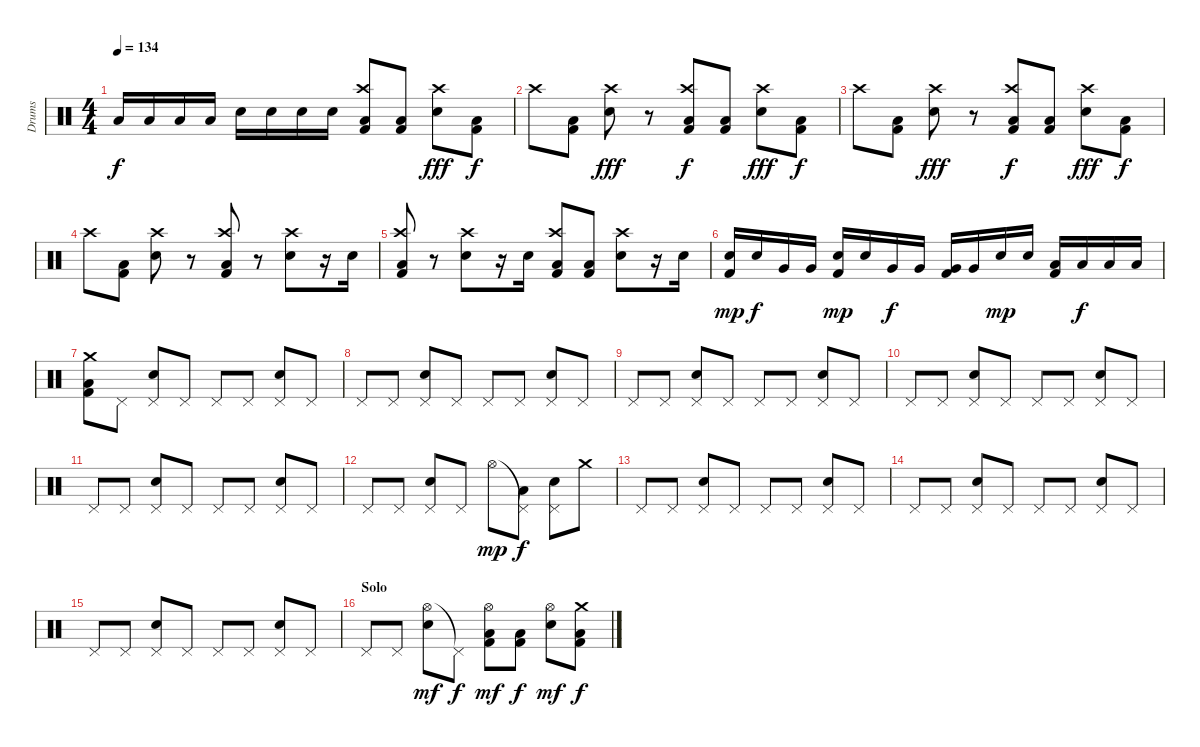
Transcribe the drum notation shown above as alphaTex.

\track ("Drums" "Drums") {instrument percussion}
\staff {score}
\articulation defaults
\ts (4 4)
\tempo 134
\clef neutral
\ks c "Low Floor Tom (hit)".16{dy f} "Low Floor Tom (hit)".16 "Low Floor Tom (hit)".16 "Low Floor Tom (hit)".16 "Snare (hit) 2".16 "Snare (hit) 2".16 "Snare (hit) 2".16 "Snare (hit) 2".16
("Crash high (hit)" "Kick (hit) 2" "Low Floor Tom (hit)").8 ("Kick (hit) 2" "Low Floor Tom (hit)").8 ("Crash high (hit)" "Snare (hit) 2").8{dy fff} ("Kick (hit) 2" "Low Floor Tom (hit)").8{dy f} |
"Crash high (hit)".8 ("Kick (hit) 2" "Low Floor Tom (hit)").8 ("Crash high (hit)" "Snare (hit) 2").8{dy fff} r.8 ("Crash high (hit)" "Kick (hit) 2" "Low Floor Tom (hit)").8{dy f} ("Kick (hit) 2" "Low Floor Tom (hit)").8 ("Crash high (hit)" "Snare (hit) 2").8{dy fff} ("Kick (hit) 2" "Low Floor Tom (hit)").8{dy f} |
"Crash high (hit)".8 ("Kick (hit) 2" "Low Floor Tom (hit)").8 ("Crash high (hit)" "Snare (hit) 2").8{dy fff} r.8 ("Crash high (hit)" "Kick (hit) 2" "Low Floor Tom (hit)").8{dy f} ("Kick (hit) 2" "Low Floor Tom (hit)").8 ("Crash high (hit)" "Snare (hit) 2").8{dy fff} ("Kick (hit) 2" "Low Floor Tom (hit)").8{dy f} |
"Crash high (hit)".8 ("Kick (hit) 2" "Low Floor Tom (hit)").8 ("Crash high (hit)" "Snare (hit) 2").8 r.8 ("Crash high (hit)" "Kick (hit) 2" "Low Floor Tom (hit)").8 r.8 ("Crash high (hit)" "Snare (hit) 2").8 r.16 "Snare (hit) 2".16 |
("Crash high (hit)" "Kick (hit) 2" "Low Floor Tom (hit)").8 r.8 ("Crash high (hit)" "Snare (hit) 2").8 r.16 "Snare (hit) 2".16 ("Crash high (hit)" "Kick (hit) 2" "Low Floor Tom (hit)").8 ("Kick (hit) 2" "Low Floor Tom (hit)").8 ("Crash high (hit)" "Snare (hit) 2").8 r.16 "Snare (hit) 2".16 |
("Snare (hit) 2" "Kick (hit) 2").16{dy mp} "Snare (hit) 2".16{dy f} "Very Low Tom (hit)".16 "Very Low Tom (hit)".16 ("Snare (hit) 2" "Kick (hit) 2").16{dy mp} "Snare (hit) 2".16 "Very Low Tom (hit)".16{dy f} "Very Low Tom (hit)".16 ("Very Low Tom (hit)" "Kick (hit) 2").16 "Very Low Tom (hit)".16 "Snare (hit) 2".16{dy mp} "Snare (hit) 2".16 ("Low Floor Tom (hit)" "Kick (hit) 2").16 "Low Floor Tom (hit)".16{dy f} "Low Floor Tom (hit)".16 "Low Floor Tom (hit)".16 |
("Crash medium (hit)" "Kick (hit) 2" "Low Floor Tom (hit)").8 "Pedal Hi-Hat (hit)".8 ("Pedal Hi-Hat (hit)" "Snare (hit) 2").8 "Pedal Hi-Hat (hit)".8 "Pedal Hi-Hat (hit)".8 "Pedal Hi-Hat (hit)".8 ("Pedal Hi-Hat (hit)" "Snare (hit) 2").8 "Pedal Hi-Hat (hit)".8 |
"Pedal Hi-Hat (hit)".8 "Pedal Hi-Hat (hit)".8 ("Pedal Hi-Hat (hit)" "Snare (hit) 2").8 "Pedal Hi-Hat (hit)".8 "Pedal Hi-Hat (hit)".8 "Pedal Hi-Hat (hit)".8 ("Pedal Hi-Hat (hit)" "Snare (hit) 2").8 "Pedal Hi-Hat (hit)".8 |
"Pedal Hi-Hat (hit)".8 "Pedal Hi-Hat (hit)".8 ("Pedal Hi-Hat (hit)" "Snare (hit) 2").8 "Pedal Hi-Hat (hit)".8 "Pedal Hi-Hat (hit)".8 "Pedal Hi-Hat (hit)".8 ("Pedal Hi-Hat (hit)" "Snare (hit) 2").8 "Pedal Hi-Hat (hit)".8 |
"Pedal Hi-Hat (hit)".8 "Pedal Hi-Hat (hit)".8 ("Pedal Hi-Hat (hit)" "Snare (hit) 2").8 "Pedal Hi-Hat (hit)".8 "Pedal Hi-Hat (hit)".8 "Pedal Hi-Hat (hit)".8 ("Pedal Hi-Hat (hit)" "Snare (hit) 2").8 "Pedal Hi-Hat (hit)".8 |
"Pedal Hi-Hat (hit)".8 "Pedal Hi-Hat (hit)".8 ("Pedal Hi-Hat (hit)" "Snare (hit) 2").8 "Pedal Hi-Hat (hit)".8 "Pedal Hi-Hat (hit)".8 "Pedal Hi-Hat (hit)".8 ("Pedal Hi-Hat (hit)" "Snare (hit) 2").8 "Pedal Hi-Hat (hit)".8 |
"Pedal Hi-Hat (hit)".8 "Pedal Hi-Hat (hit)".8 ("Pedal Hi-Hat (hit)" "Snare (hit) 2").8 "Pedal Hi-Hat (hit)".8 "Hi-Hat (open)".8{dy mp} ("Pedal Hi-Hat (hit)"{t} "Low Floor Tom (hit)").8{dy f} ("Pedal Hi-Hat (hit)" "Snare (hit) 2").8 "Crash medium (hit)".8 |
"Pedal Hi-Hat (hit)".8 "Pedal Hi-Hat (hit)".8 ("Pedal Hi-Hat (hit)" "Snare (hit) 2").8 "Pedal Hi-Hat (hit)".8 "Pedal Hi-Hat (hit)".8 "Pedal Hi-Hat (hit)".8 ("Pedal Hi-Hat (hit)" "Snare (hit) 2").8 "Pedal Hi-Hat (hit)".8 |
"Pedal Hi-Hat (hit)".8 "Pedal Hi-Hat (hit)".8 ("Pedal Hi-Hat (hit)" "Snare (hit) 2").8 "Pedal Hi-Hat (hit)".8 "Pedal Hi-Hat (hit)".8 "Pedal Hi-Hat (hit)".8 ("Pedal Hi-Hat (hit)" "Snare (hit) 2").8 "Pedal Hi-Hat (hit)".8 |
"Pedal Hi-Hat (hit)".8 "Pedal Hi-Hat (hit)".8 ("Pedal Hi-Hat (hit)" "Snare (hit) 2").8 "Pedal Hi-Hat (hit)".8 "Pedal Hi-Hat (hit)".8 "Pedal Hi-Hat (hit)".8 ("Pedal Hi-Hat (hit)" "Snare (hit) 2").8 "Pedal Hi-Hat (hit)".8 |
\section ("" "Solo")
"Pedal Hi-Hat (hit)".8 "Pedal Hi-Hat (hit)".8 ("Hi-Hat (open)" "Snare (hit) 2").8{dy mf} "Pedal Hi-Hat (hit)"{t}.8{dy f} ("Hi-Hat (open)" "Kick (hit) 2" "Low Floor Tom (hit)").8{dy mf} ("Kick (hit) 2" "Low Floor Tom (hit)").8{dy f} ("Hi-Hat (open)" "Snare (hit) 2").8{dy mf} ("Crash medium (hit)" "Kick (hit) 2" "Low Floor Tom (hit)").8{dy f}
